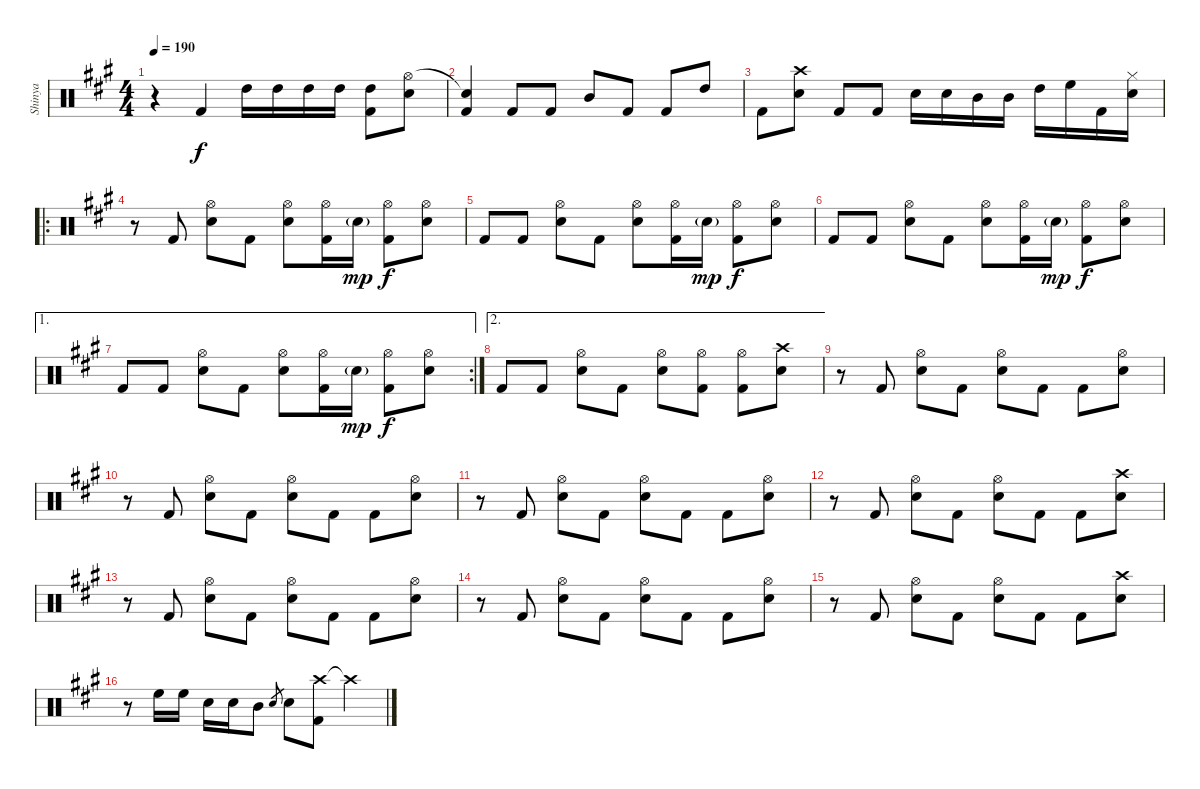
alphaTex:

\track ("Shinya" "Shinya") {instrument percussion}
\staff {score}
\articulation defaults
\ts (4 4)
\tempo 190
\clef neutral
\ks a
r.4{dy f} "Kick (hit) 2".4 "High Tom (hit)".16 "High Tom (hit)".16 "High Tom (hit)".16 "High Tom (hit)".16 ("High Tom (hit)" "Kick (hit) 2").8 ("Hi-Hat (open)" "Snare (hit) 2").8 |
("Snare (hit)"{t} "Kick (hit) 2").4 "Kick (hit) 2".8 "Kick (hit) 2".8 "Mid Tom (hit)".8 "Kick (hit) 2".8 "Kick (hit) 2".8 "High Tom (hit)".8 |
"Kick (hit) 2".8 ("Crash high (hit)" "Snare (hit) 2").8 "Kick (hit) 2".8 "Kick (hit) 2".8 "Snare (hit) 2".16 "Snare (hit) 2".16 "Mid Tom (hit)".16 "Mid Tom (hit)".16 "High Tom (hit)".16 "High Floor Tom (hit)".16 "Kick (hit) 2".16 ("Hi-Hat (closed)" "Snare (hit) 2").16 |
\ro
r.8 "Kick (hit) 2".8 ("Hi-Hat (open)" "Snare (hit) 2").8 "Kick (hit) 2".8 ("Hi-Hat (open)" "Snare (hit) 2").8 ("Hi-Hat (open)" "Kick (hit) 2").16 "Snare (hit) 2"{g}.16{dy mp} ("Hi-Hat (open)" "Kick (hit) 2").8{dy f} ("Hi-Hat (open)" "Snare (hit) 2").8 |
"Kick (hit) 2".8 "Kick (hit) 2".8 ("Hi-Hat (open)" "Snare (hit) 2").8 "Kick (hit) 2".8 ("Hi-Hat (open)" "Snare (hit) 2").8 ("Hi-Hat (open)" "Kick (hit) 2").16 "Snare (hit) 2"{g}.16{dy mp} ("Hi-Hat (open)" "Kick (hit) 2").8{dy f} ("Hi-Hat (open)" "Snare (hit) 2").8 |
"Kick (hit) 2".8 "Kick (hit) 2".8 ("Hi-Hat (open)" "Snare (hit) 2").8 "Kick (hit) 2".8 ("Hi-Hat (open)" "Snare (hit) 2").8 ("Hi-Hat (open)" "Kick (hit) 2").16 "Snare (hit) 2"{g}.16{dy mp} ("Hi-Hat (open)" "Kick (hit) 2").8{dy f} ("Hi-Hat (open)" "Snare (hit) 2").8 |
\ae 1
\rc 2 "Kick (hit) 2".8 "Kick (hit) 2".8
("Hi-Hat (open)" "Snare (hit) 2").8 "Kick (hit) 2".8 ("Hi-Hat (open)" "Snare (hit) 2").8 ("Hi-Hat (open)" "Kick (hit) 2").16 "Snare (hit) 2"{g}.16{dy mp} ("Hi-Hat (open)" "Kick (hit) 2").8{dy f} ("Hi-Hat (open)" "Snare (hit) 2").8 |
\ae 2 "Kick (hit) 2".8 "Kick (hit) 2".8
("Hi-Hat (open)" "Snare (hit) 2").8 "Kick (hit) 2".8 ("Hi-Hat (open)" "Snare (hit) 2").8 ("Hi-Hat (open)" "Kick (hit) 2").8 ("Hi-Hat (open)" "Kick (hit) 2").8 ("Crash high (hit)" "Snare (hit) 2").8 |
r.8 "Kick (hit) 2".8 ("Hi-Hat (open)" "Snare (hit) 2").8 "Kick (hit) 2".8 ("Hi-Hat (open)" "Snare (hit) 2").8 "Kick (hit) 2".8 "Kick (hit) 2".8 ("Hi-Hat (open)" "Snare (hit) 2").8 |
r.8 "Kick (hit) 2".8 ("Hi-Hat (open)" "Snare (hit) 2").8 "Kick (hit) 2".8 ("Hi-Hat (open)" "Snare (hit) 2").8 "Kick (hit) 2".8 "Kick (hit) 2".8 ("Hi-Hat (open)" "Snare (hit) 2").8 |
r.8 "Kick (hit) 2".8 ("Hi-Hat (open)" "Snare (hit) 2").8 "Kick (hit) 2".8 ("Hi-Hat (open)" "Snare (hit) 2").8 "Kick (hit) 2".8 "Kick (hit) 2".8 ("Hi-Hat (open)" "Snare (hit) 2").8 |
r.8 "Kick (hit) 2".8 ("Hi-Hat (open)" "Snare (hit) 2").8 "Kick (hit) 2".8 ("Hi-Hat (open)" "Snare (hit) 2").8 "Kick (hit) 2".8 "Kick (hit) 2".8 ("Crash high (hit)" "Snare (hit) 2").8 |
r.8 "Kick (hit) 2".8 ("Hi-Hat (open)" "Snare (hit) 2").8 "Kick (hit) 2".8 ("Hi-Hat (open)" "Snare (hit) 2").8 "Kick (hit) 2".8 "Kick (hit) 2".8 ("Hi-Hat (open)" "Snare (hit) 2").8 |
r.8 "Kick (hit) 2".8 ("Hi-Hat (open)" "Snare (hit) 2").8 "Kick (hit) 2".8 ("Hi-Hat (open)" "Snare (hit) 2").8 "Kick (hit) 2".8 "Kick (hit) 2".8 ("Hi-Hat (open)" "Snare (hit) 2").8 |
r.8 "Kick (hit) 2".8 ("Hi-Hat (open)" "Snare (hit) 2").8 "Kick (hit) 2".8 ("Hi-Hat (open)" "Snare (hit) 2").8 "Kick (hit) 2".8 "Kick (hit) 2".8 ("Crash high (hit)" "Snare (hit) 2").8 |
r.8 "High Floor Tom (hit)".16 "High Floor Tom (hit)".16 "Snare (hit) 2".16 "Snare (hit) 2".16 "Mid Tom (hit)".8 "Snare (hit) 2".8{gr} "Snare (hit) 2".8 ("Crash high (hit)" "Kick (hit) 2").8 "Crash high (hit)"{t}.4
